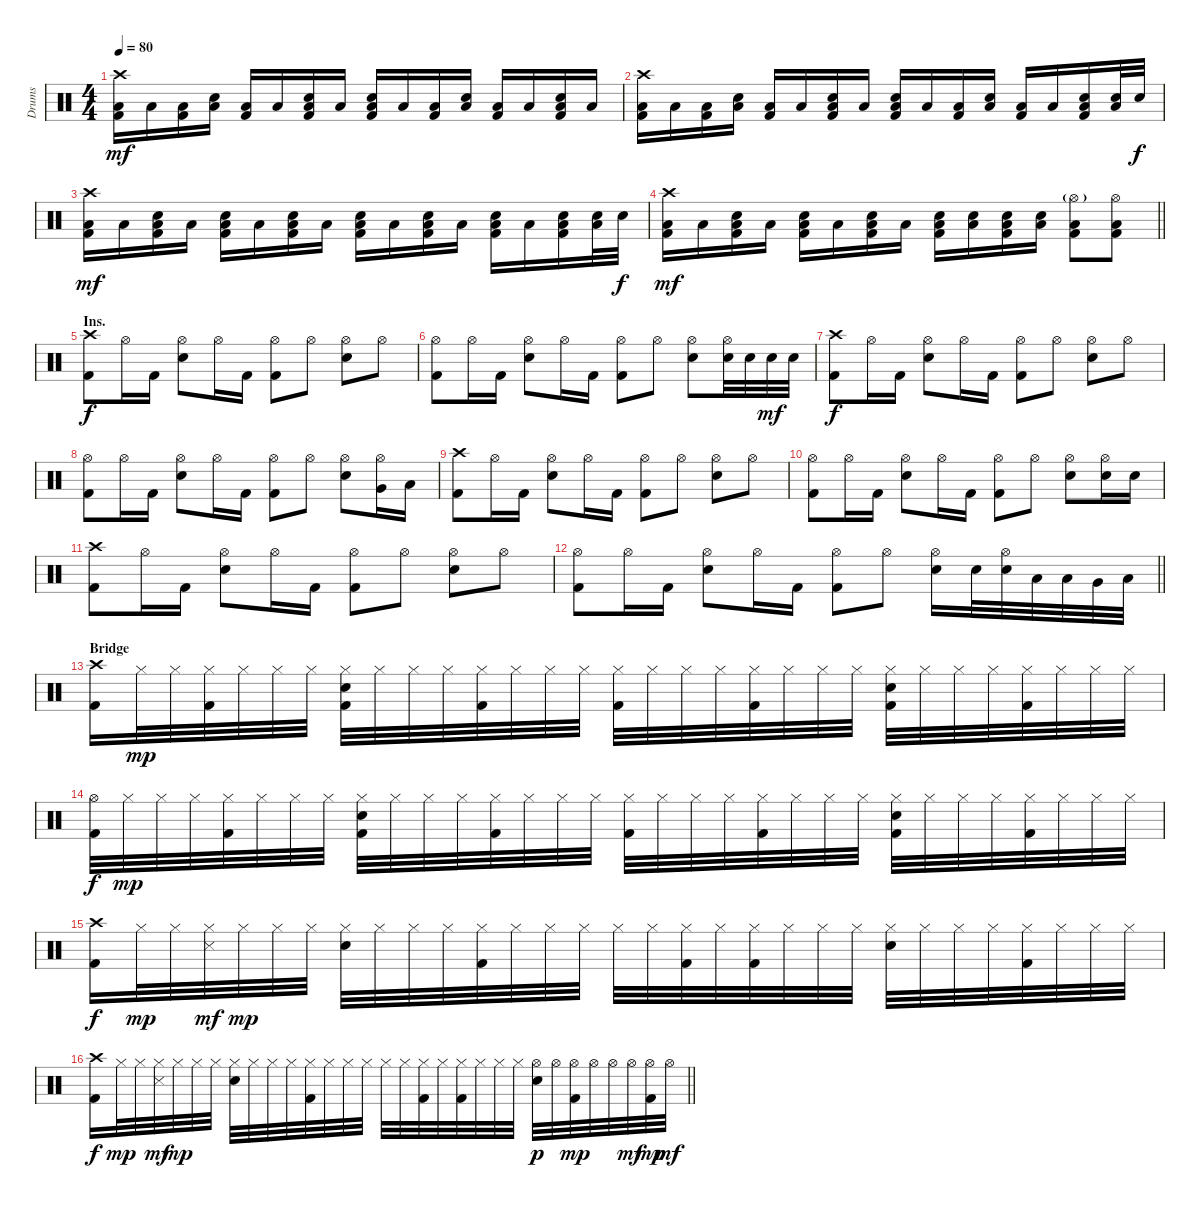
\track ("Drums" "Drums") {instrument percussion}
\staff {score}
\articulation defaults
\ts (4 4)
\tempo 80
\clef neutral
\ks c
("Crash high (hit)" "Low Floor Tom (hit)" "Kick (hit) 2").16{dy mf} "Low Floor Tom (hit)".16 ("Low Floor Tom (hit)" "Kick (hit) 2").16 ("Electric Snare (hit)" "Low Floor Tom (hit)").16 ("Low Floor Tom (hit)" "Kick (hit) 2").16 "Low Floor Tom (hit)".16 ("Electric Snare (hit)" "Low Floor Tom (hit)" "Kick (hit) 2").16 "Low Floor Tom (hit)".16 ("Electric Snare (hit)" "Low Floor Tom (hit)" "Kick (hit) 2").16 "Low Floor Tom (hit)".16 ("Low Floor Tom (hit)" "Kick (hit) 2").16 ("Electric Snare (hit)" "Low Floor Tom (hit)").16 ("Low Floor Tom (hit)" "Kick (hit) 2").16 "Low Floor Tom (hit)".16 ("Electric Snare (hit)" "Low Floor Tom (hit)" "Kick (hit) 2").16 "Low Floor Tom (hit)".16 |
("Crash high (hit)" "Low Floor Tom (hit)" "Kick (hit) 2").16 "Low Floor Tom (hit)".16 ("Low Floor Tom (hit)" "Kick (hit) 2").16 ("Electric Snare (hit)" "Low Floor Tom (hit)").16 ("Low Floor Tom (hit)" "Kick (hit) 2").16 "Low Floor Tom (hit)".16 ("Electric Snare (hit)" "Low Floor Tom (hit)" "Kick (hit) 2").16 "Low Floor Tom (hit)".16 ("Electric Snare (hit)" "Low Floor Tom (hit)" "Kick (hit) 2").16 "Low Floor Tom (hit)".16 ("Low Floor Tom (hit)" "Kick (hit) 2").16 ("Electric Snare (hit)" "Low Floor Tom (hit)").16 ("Low Floor Tom (hit)" "Kick (hit) 2").16 "Low Floor Tom (hit)".16 ("Electric Snare (hit)" "Low Floor Tom (hit)" "Kick (hit) 2").16 ("Electric Snare (hit)" "Low Floor Tom (hit)").32 "Electric Snare (hit)".32{dy f} |
("Crash high (hit)" "Low Floor Tom (hit)" "Kick (hit) 2").16{dy mf} "Low Floor Tom (hit)".16 ("Electric Snare (hit)" "Low Floor Tom (hit)" "Kick (hit) 2").16 "Low Floor Tom (hit)".16 ("Electric Snare (hit)" "Low Floor Tom (hit)" "Kick (hit) 2").16 "Low Floor Tom (hit)".16 ("Electric Snare (hit)" "Low Floor Tom (hit)" "Kick (hit) 2").16 "Low Floor Tom (hit)".16 ("Electric Snare (hit)" "Low Floor Tom (hit)" "Kick (hit) 2").16 "Low Floor Tom (hit)".16 ("Electric Snare (hit)" "Low Floor Tom (hit)" "Kick (hit) 2").16 "Low Floor Tom (hit)".16 ("Electric Snare (hit)" "Low Floor Tom (hit)" "Kick (hit) 2").16 "Low Floor Tom (hit)".16 ("Electric Snare (hit)" "Low Floor Tom (hit)" "Kick (hit) 2").16 ("Electric Snare (hit)" "Low Floor Tom (hit)").32 "Electric Snare (hit)".32{dy f} |
\barLineRight lightlight
("Crash high (hit)" "Low Floor Tom (hit)" "Kick (hit) 2").16{dy mf} "Low Floor Tom (hit)".16 ("Electric Snare (hit)" "Low Floor Tom (hit)" "Kick (hit) 2").16 "Low Floor Tom (hit)".16 ("Electric Snare (hit)" "Low Floor Tom (hit)" "Kick (hit) 2").16 "Low Floor Tom (hit)".16 ("Electric Snare (hit)" "Low Floor Tom (hit)" "Kick (hit) 2").16 "Low Floor Tom (hit)".16 ("Electric Snare (hit)" "Low Floor Tom (hit)" "Kick (hit) 2").16 ("Electric Snare (hit)" "Low Floor Tom (hit)").16 ("Electric Snare (hit)" "Low Floor Tom (hit)" "Kick (hit) 2").16 ("Electric Snare (hit)" "Low Floor Tom (hit)").16 ("Hi-Hat (open)"{g} "Low Floor Tom (hit)" "Kick (hit) 2").8 ("Hi-Hat (open)" "Low Floor Tom (hit)" "Kick (hit) 2").8 |
\section ("" "Ins.")
("Crash high (hit)" "Kick (hit) 2").8{dy f} "Hi-Hat (open)".16 "Kick (hit) 2".16 ("Hi-Hat (open)" "Electric Snare (hit)").8 "Hi-Hat (open)".16 "Kick (hit) 2".16 ("Hi-Hat (open)" "Kick (hit) 2").8 "Hi-Hat (open)".8 ("Hi-Hat (open)" "Electric Snare (hit)").8 "Hi-Hat (open)".8 |
("Hi-Hat (open)" "Kick (hit) 2").8 "Hi-Hat (open)".16 "Kick (hit) 2".16 ("Hi-Hat (open)" "Electric Snare (hit)").8 "Hi-Hat (open)".16 "Kick (hit) 2".16 ("Hi-Hat (open)" "Kick (hit) 2").8 "Hi-Hat (open)".8 ("Hi-Hat (open)" "Electric Snare (hit)").8 ("Hi-Hat (open)" "Electric Snare (hit)").32 "Electric Snare (hit)".32 "Electric Snare (hit)".32{dy mf} "Electric Snare (hit)".32 |
("Crash high (hit)" "Kick (hit) 2").8{dy f} "Hi-Hat (open)".16 "Kick (hit) 2".16 ("Hi-Hat (open)" "Electric Snare (hit)").8 "Hi-Hat (open)".16 "Kick (hit) 2".16 ("Hi-Hat (open)" "Kick (hit) 2").8 "Hi-Hat (open)".8 ("Hi-Hat (open)" "Electric Snare (hit)").8 "Hi-Hat (open)".8 |
("Hi-Hat (open)" "Kick (hit) 2").8 "Hi-Hat (open)".16 "Kick (hit) 2".16 ("Hi-Hat (open)" "Electric Snare (hit)").8 "Hi-Hat (open)".16 "Kick (hit) 2".16 ("Hi-Hat (open)" "Kick (hit) 2").8 "Hi-Hat (open)".8 ("Hi-Hat (open)" "Electric Snare (hit)").8 ("Hi-Hat (open)" "Very Low Tom (hit)").16 "Low Floor Tom (hit)".16 |
("Crash high (hit)" "Kick (hit) 2").8 "Hi-Hat (open)".16 "Kick (hit) 2".16 ("Hi-Hat (open)" "Electric Snare (hit)").8 "Hi-Hat (open)".16 "Kick (hit) 2".16 ("Hi-Hat (open)" "Kick (hit) 2").8 "Hi-Hat (open)".8 ("Hi-Hat (open)" "Electric Snare (hit)").8 "Hi-Hat (open)".8 |
("Hi-Hat (open)" "Kick (hit) 2").8 "Hi-Hat (open)".16 "Kick (hit) 2".16 ("Hi-Hat (open)" "Electric Snare (hit)").8 "Hi-Hat (open)".16 "Kick (hit) 2".16 ("Hi-Hat (open)" "Kick (hit) 2").8 "Hi-Hat (open)".8 ("Hi-Hat (open)" "Electric Snare (hit)").8 ("Hi-Hat (open)" "Electric Snare (hit)").16 "Electric Snare (hit)".16 |
("Crash high (hit)" "Kick (hit) 2").8 "Hi-Hat (open)".16 "Kick (hit) 2".16 ("Hi-Hat (open)" "Electric Snare (hit)").8 "Hi-Hat (open)".16 "Kick (hit) 2".16 ("Hi-Hat (open)" "Kick (hit) 2").8 "Hi-Hat (open)".8 ("Hi-Hat (open)" "Electric Snare (hit)").8 "Hi-Hat (open)".8 |
\barLineRight lightlight
("Hi-Hat (open)" "Kick (hit) 2").8 "Hi-Hat (open)".16 "Kick (hit) 2".16 ("Hi-Hat (open)" "Electric Snare (hit)").8 "Hi-Hat (open)".16 "Kick (hit) 2".16 ("Hi-Hat (open)" "Kick (hit) 2").8 "Hi-Hat (open)".8 ("Hi-Hat (open)" "Electric Snare (hit)").16 "Electric Snare (hit)".32 ("Hi-Hat (open)" "Electric Snare (hit)").32 "Low Tom (hit)".32 "Low Tom (hit)".32 "Very Low Tom (hit)".32 "Low Floor Tom (hit)".32 |
\section ("" "Bridge")
("Crash high (hit)" "Kick (hit) 2").16 "Hi-Hat (closed)".32{dy mp} "Hi-Hat (closed)".32 ("Hi-Hat (closed)" "Kick (hit) 2").32 "Hi-Hat (closed)".32 "Hi-Hat (closed)".32 "Hi-Hat (closed)".32 ("Hi-Hat (closed)" "Electric Snare (hit)" "Kick (hit) 2").32 "Hi-Hat (closed)".32 "Hi-Hat (closed)".32 "Hi-Hat (closed)".32 ("Hi-Hat (closed)" "Kick (hit) 2").32 "Hi-Hat (closed)".32 "Hi-Hat (closed)".32 "Hi-Hat (closed)".32 ("Hi-Hat (closed)" "Kick (hit) 2").32 "Hi-Hat (closed)".32 "Hi-Hat (closed)".32 "Hi-Hat (closed)".32 ("Hi-Hat (closed)" "Kick (hit) 2").32 "Hi-Hat (closed)".32 "Hi-Hat (closed)".32 "Hi-Hat (closed)".32 ("Hi-Hat (closed)" "Electric Snare (hit)" "Kick (hit) 2").32 "Hi-Hat (closed)".32 "Hi-Hat (closed)".32 "Hi-Hat (closed)".32 ("Hi-Hat (closed)" "Kick (hit) 2").32 "Hi-Hat (closed)".32 "Hi-Hat (closed)".32 "Hi-Hat (closed)".32 |
("Hi-Hat (open)" "Kick (hit) 2").32{dy f} "Hi-Hat (closed)".32{dy mp} "Hi-Hat (closed)".32 "Hi-Hat (closed)".32 ("Hi-Hat (closed)" "Kick (hit) 2").32 "Hi-Hat (closed)".32 "Hi-Hat (closed)".32 "Hi-Hat (closed)".32 ("Hi-Hat (closed)" "Electric Snare (hit)" "Kick (hit) 2").32 "Hi-Hat (closed)".32 "Hi-Hat (closed)".32 "Hi-Hat (closed)".32 ("Hi-Hat (closed)" "Kick (hit) 2").32 "Hi-Hat (closed)".32 "Hi-Hat (closed)".32 "Hi-Hat (closed)".32 ("Hi-Hat (closed)" "Kick (hit) 2").32 "Hi-Hat (closed)".32 "Hi-Hat (closed)".32 "Hi-Hat (closed)".32 ("Hi-Hat (closed)" "Kick (hit) 2").32 "Hi-Hat (closed)".32 "Hi-Hat (closed)".32 "Hi-Hat (closed)".32 ("Hi-Hat (closed)" "Electric Snare (hit)" "Kick (hit) 2").32 "Hi-Hat (closed)".32 "Hi-Hat (closed)".32 "Hi-Hat (closed)".32 ("Hi-Hat (closed)" "Kick (hit) 2").32 "Hi-Hat (closed)".32 "Hi-Hat (closed)".32 "Hi-Hat (closed)".32 |
("Crash high (hit)" "Kick (hit) 2").16{dy f} "Hi-Hat (closed)".32{dy mp} "Hi-Hat (closed)".32 ("Hi-Hat (closed)" "Snare (side stick) 3").32{dy mf} "Hi-Hat (closed)".32{dy mp} "Hi-Hat (closed)".32 "Hi-Hat (closed)".32 ("Hi-Hat (closed)" "Electric Snare (hit)").32 "Hi-Hat (closed)".32 "Hi-Hat (closed)".32 "Hi-Hat (closed)".32 ("Hi-Hat (closed)" "Kick (hit) 2").32 "Hi-Hat (closed)".32 "Hi-Hat (closed)".32 "Hi-Hat (closed)".32 "Hi-Hat (closed)".32 "Hi-Hat (closed)".32 ("Hi-Hat (closed)" "Kick (hit) 2").32 "Hi-Hat (closed)".32 ("Hi-Hat (closed)" "Kick (hit) 2").32 "Hi-Hat (closed)".32 "Hi-Hat (closed)".32 "Hi-Hat (closed)".32 ("Hi-Hat (closed)" "Electric Snare (hit)").32 "Hi-Hat (closed)".32 "Hi-Hat (closed)".32 "Hi-Hat (closed)".32 ("Hi-Hat (closed)" "Kick (hit) 2").32 "Hi-Hat (closed)".32 "Hi-Hat (closed)".32 "Hi-Hat (closed)".32 |
\barLineRight lightlight
("Crash high (hit)" "Kick (hit) 2").16{dy f} "Hi-Hat (closed)".32{dy mp} "Hi-Hat (closed)".32 ("Hi-Hat (closed)" "Snare (side stick) 3").32{dy mf} "Hi-Hat (closed)".32{dy mp} "Hi-Hat (closed)".32 "Hi-Hat (closed)".32 ("Hi-Hat (closed)" "Electric Snare (hit)").32 "Hi-Hat (closed)".32 "Hi-Hat (closed)".32 "Hi-Hat (closed)".32 ("Hi-Hat (closed)" "Kick (hit) 2").32 "Hi-Hat (closed)".32 "Hi-Hat (closed)".32 "Hi-Hat (closed)".32 "Hi-Hat (closed)".32 "Hi-Hat (closed)".32 ("Hi-Hat (closed)" "Kick (hit) 2").32 "Hi-Hat (closed)".32 ("Hi-Hat (closed)" "Kick (hit) 2").32 "Hi-Hat (closed)".32 "Hi-Hat (closed)".32 "Hi-Hat (closed)".32 ("Hi-Hat (open)" "Electric Snare (hit)").32{dy p} "Hi-Hat (open)".32 ("Hi-Hat (open)" "Kick (hit) 2").32{dy mp} "Hi-Hat (open)".32 "Hi-Hat (open)".32 "Hi-Hat (open)".32{dy mf} ("Hi-Hat (open)" "Kick (hit) 2").32{dy mp} "Hi-Hat (open)".32{dy mf}
